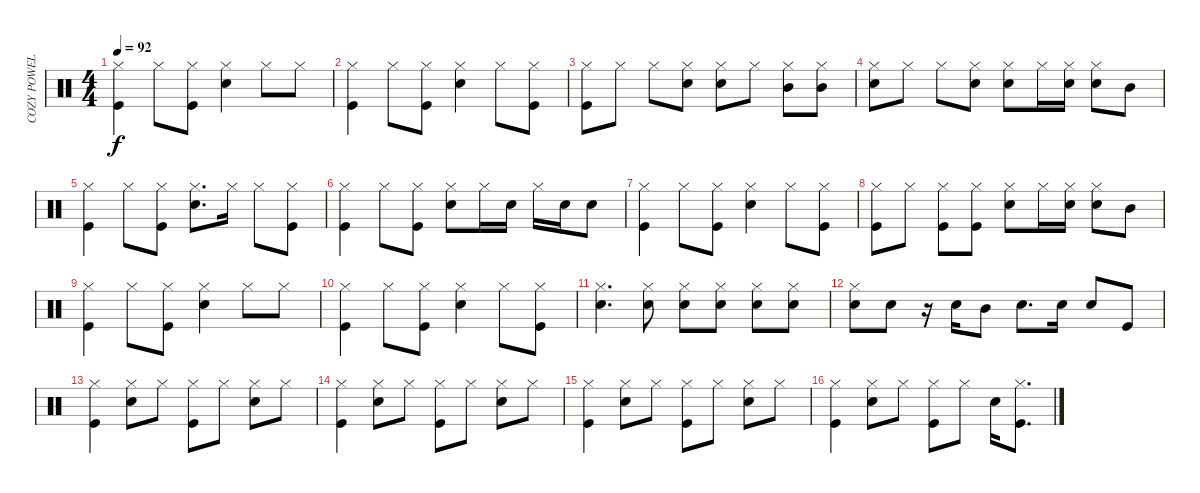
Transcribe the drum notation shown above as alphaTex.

\track ("COZY POWELL" "COZY POWEL") {instrument percussion}
\staff {score}
\articulation defaults
\ts (4 4)
\tempo 92
\clef neutral
\ks c
("Hi-Hat (closed)" "Kick (hit)").4{dy f} "Hi-Hat (closed)".8 ("Hi-Hat (closed)" "Kick (hit)").8 ("Hi-Hat (closed)" "Snare (hit) 2").4 "Hi-Hat (closed)".8 "Hi-Hat (closed)".8 |
("Hi-Hat (closed)" "Kick (hit)").4 "Hi-Hat (closed)".8 ("Hi-Hat (closed)" "Kick (hit)").8 ("Hi-Hat (closed)" "Snare (hit) 2").4 "Hi-Hat (closed)".8 ("Hi-Hat (closed)" "Kick (hit)").8 |
("Hi-Hat (closed)" "Kick (hit)").8 "Hi-Hat (closed)".8 "Hi-Hat (closed)".8 ("Hi-Hat (closed)" "Snare (hit) 2").8 ("Hi-Hat (closed)" "Snare (hit) 2").8 "Hi-Hat (closed)".8 ("Hi-Hat (closed)" "Mid Tom (hit)").8 ("Hi-Hat (closed)" "Mid Tom (hit)").8 |
("Hi-Hat (closed)" "Snare (hit) 2").8 "Hi-Hat (closed)".8 "Hi-Hat (closed)".8 ("Hi-Hat (closed)" "Snare (hit) 2").8 ("Hi-Hat (closed)" "Snare (hit) 2").8 "Hi-Hat (closed)".16 ("Hi-Hat (closed)" "Snare (hit) 2").16 ("Hi-Hat (closed)" "Snare (hit) 2").8 "Mid Tom (hit)".8 |
("Hi-Hat (closed)" "Kick (hit)").4 "Hi-Hat (closed)".8 ("Hi-Hat (closed)" "Kick (hit)").8 ("Hi-Hat (closed)" "Snare (hit) 2").8{d} "Hi-Hat (closed)".16 "Hi-Hat (closed)".8 ("Hi-Hat (closed)" "Kick (hit)").8 |
("Hi-Hat (closed)" "Kick (hit)").4 "Hi-Hat (closed)".8 ("Hi-Hat (closed)" "Kick (hit)").8 ("Hi-Hat (closed)" "Snare (hit) 2").8 "Hi-Hat (closed)".16 "Snare (hit) 2".16 "Hi-Hat (closed)".16 "Snare (hit) 2".16 "Snare (hit) 2".8 |
("Hi-Hat (closed)" "Kick (hit)").4 "Hi-Hat (closed)".8 ("Hi-Hat (closed)" "Kick (hit)").8 ("Hi-Hat (closed)" "Snare (hit) 2").4 "Hi-Hat (closed)".8 ("Hi-Hat (closed)" "Kick (hit)").8 |
("Hi-Hat (closed)" "Kick (hit)").8 "Hi-Hat (closed)".8 ("Hi-Hat (closed)" "Kick (hit)").8 ("Hi-Hat (closed)" "Kick (hit)").8 ("Hi-Hat (closed)" "Snare (hit) 2").8 "Hi-Hat (closed)".16 ("Hi-Hat (closed)" "Snare (hit) 2").16 ("Hi-Hat (closed)" "Snare (hit) 2").8 "Mid Tom (hit)".8 |
("Hi-Hat (closed)" "Kick (hit)").4 "Hi-Hat (closed)".8 ("Hi-Hat (closed)" "Kick (hit)").8 ("Hi-Hat (closed)" "Snare (hit) 2").4 "Hi-Hat (closed)".8 "Hi-Hat (closed)".8 |
("Hi-Hat (closed)" "Kick (hit)").4 "Hi-Hat (closed)".8 ("Hi-Hat (closed)" "Kick (hit)").8 ("Hi-Hat (closed)" "Snare (hit) 2").4 "Hi-Hat (closed)".8 ("Hi-Hat (closed)" "Kick (hit)").8 |
("Hi-Hat (closed)" "Snare (hit) 2").4{d} ("Hi-Hat (closed)" "Snare (hit) 2").8 ("Hi-Hat (closed)" "Snare (hit) 2").8 ("Hi-Hat (closed)" "Snare (hit) 2").8 ("Hi-Hat (closed)" "Snare (hit) 2").8 ("Hi-Hat (closed)" "Snare (hit) 2").8 |
("Hi-Hat (closed)" "Snare (hit) 2").8 "Snare (hit) 2".8 r.16 "Snare (hit) 2".16 "Mid Tom (hit)".8 "Snare (hit) 2".8{d} "Snare (hit) 2".16 "Snare (hit) 2".8 "Kick (hit)".8 |
("Hi-Hat (closed)" "Kick (hit)").4 ("Hi-Hat (closed)" "Snare (hit) 2").8 "Hi-Hat (closed)".8 ("Hi-Hat (closed)" "Kick (hit)").8 "Hi-Hat (closed)".8 ("Hi-Hat (closed)" "Snare (hit) 2").8 "Hi-Hat (closed)".8 |
("Hi-Hat (closed)" "Kick (hit)").4 ("Hi-Hat (closed)" "Snare (hit) 2").8 "Hi-Hat (closed)".8 ("Hi-Hat (closed)" "Kick (hit)").8 "Hi-Hat (closed)".8 ("Hi-Hat (closed)" "Snare (hit) 2").8 "Hi-Hat (closed)".8 |
("Hi-Hat (closed)" "Kick (hit)").4 ("Hi-Hat (closed)" "Snare (hit) 2").8 "Hi-Hat (closed)".8 ("Hi-Hat (closed)" "Kick (hit)").8 "Hi-Hat (closed)".8 ("Hi-Hat (closed)" "Snare (hit) 2").8 "Hi-Hat (closed)".8 |
("Hi-Hat (closed)" "Kick (hit)").4 ("Hi-Hat (closed)" "Snare (hit) 2").8 "Hi-Hat (closed)".8 ("Hi-Hat (closed)" "Kick (hit)").8 "Hi-Hat (closed)".8 "Snare (hit) 2".16 ("Hi-Hat (closed)" "Kick (hit)").8{d}
